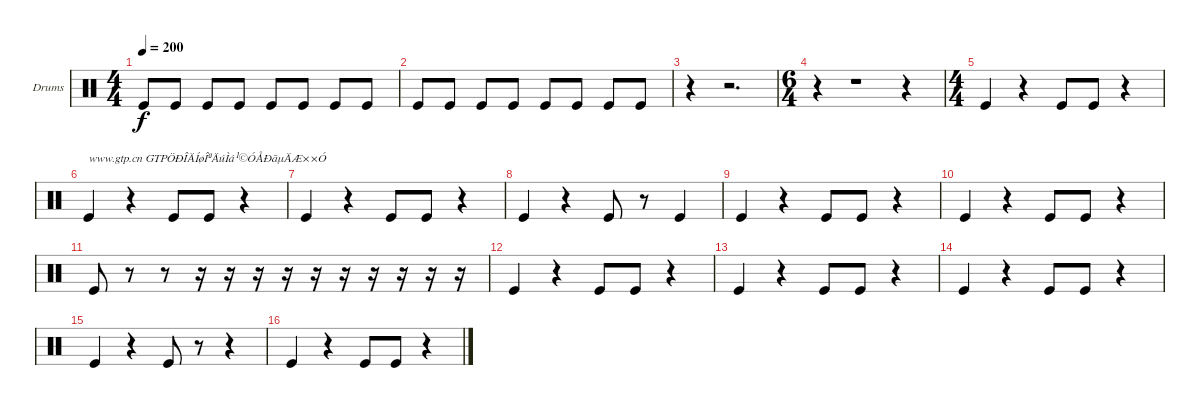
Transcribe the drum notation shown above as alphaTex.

\bracketExtendMode groupsimilarinstruments
\firstSystemTrackNameOrientation horizontal
\otherSystemsTrackNameOrientation horizontal
\track ("Drumkit" "Drums") {instrument percussion}
\staff {score}
\articulation defaults
\ts (4 4)
\tempo 200
\clef neutral
\ks c "Kick (hit)".8{dy f} "Kick (hit)".8 "Kick (hit)".8 "Kick (hit)".8 "Kick (hit)".8 "Kick (hit)".8 "Kick (hit)".8 "Kick (hit)".8
|
"Kick (hit)".8 "Kick (hit)".8 "Kick (hit)".8 "Kick (hit)".8 "Kick (hit)".8 "Kick (hit)".8 "Kick (hit)".8 "Kick (hit)".8 |
r.4 r.2{d} |
\ts (6 4)
\beaming (8 2 2 2 6)
r.4 r.1 r.4 |
\ts (4 4)
\beaming (8 2 2 2 2)
"Kick (hit)".4 r.4 "Kick (hit)".8 "Kick (hit)".8 r.4 |
"Kick (hit)".4{txt "www.gtp.cn GTPÖÐÎÄÍøÎªÄúÌá¹©ÓÅÐãµÄÆ××Ó"} r.4 "Kick (hit)".8 "Kick (hit)".8 r.4 |
"Kick (hit)".4 r.4 "Kick (hit)".8 "Kick (hit)".8 r.4 |
"Kick (hit)".4 r.4 "Kick (hit)".8 r.8 "Kick (hit)".4 |
"Kick (hit)".4 r.4 "Kick (hit)".8 "Kick (hit)".8 r.4 |
"Kick (hit)".4 r.4 "Kick (hit)".8 "Kick (hit)".8 r.4 |
"Kick (hit)".8 r.8 r.8 r.16 r.16 r.16 r.16 r.16 r.16 r.16 r.16 r.16 r.16 |
"Kick (hit)".4 r.4 "Kick (hit)".8 "Kick (hit)".8 r.4 |
"Kick (hit)".4 r.4 "Kick (hit)".8 "Kick (hit)".8 r.4 |
"Kick (hit)".4 r.4 "Kick (hit)".8 "Kick (hit)".8 r.4 |
"Kick (hit)".4 r.4 "Kick (hit)".8 r.8 r.4 |
"Kick (hit)".4 r.4 "Kick (hit)".8 "Kick (hit)".8 r.4
